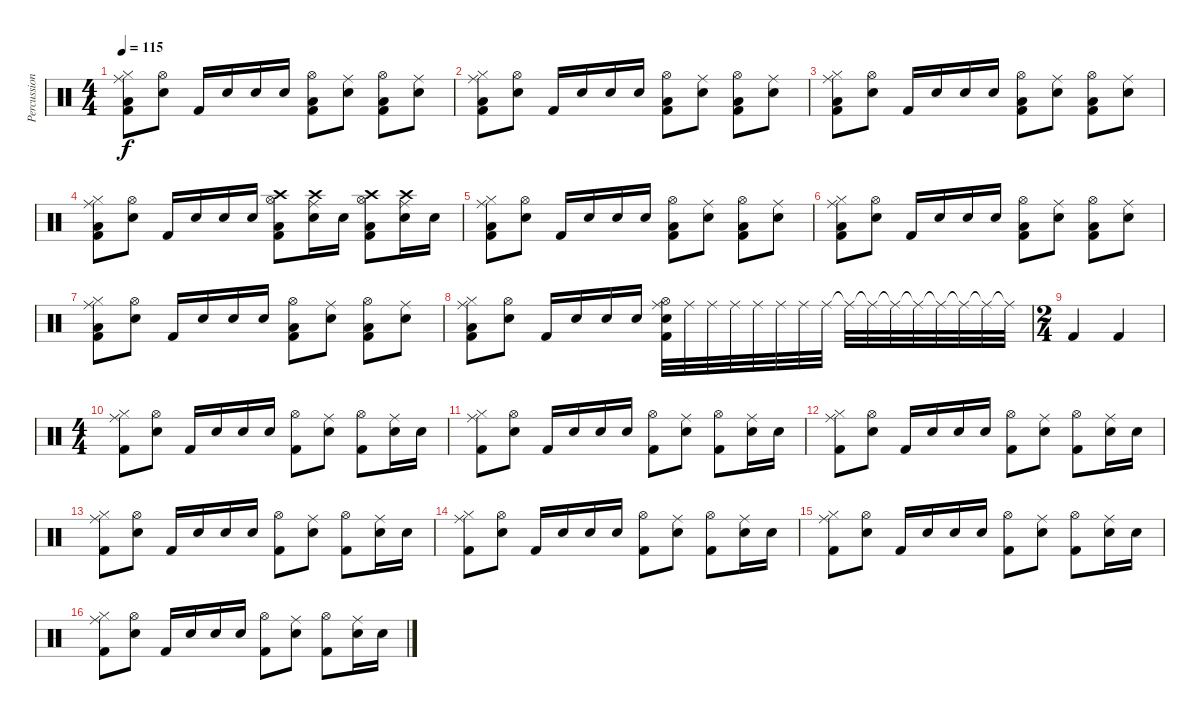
\track ("Percussion" "Percussion") {instrument percussion}
\staff {score}
\articulation defaults
\ts (4 4)
\tempo 115
\clef neutral
\ks c
("Ride (middle)" "Hi-Hat (closed)" "Kick (hit) 2" "Low Tom (hit)").8{dy f} ("Snare (hit) 2" "Hi-Hat (open)").8 "Kick (hit) 2".16 "Snare (hit) 2".16 "Snare (hit) 2".16 "Snare (hit) 2".16 ("Hi-Hat (open)" "Low Tom (hit)" "Kick (hit) 2").8 ("Ride (middle)" "Snare (hit) 2").8 ("Hi-Hat (open)" "Low Tom (hit)" "Kick (hit) 2").8 ("Ride (middle)" "Snare (hit) 2").8 |
("Ride (middle)" "Hi-Hat (closed)" "Kick (hit) 2" "Low Tom (hit)").8 ("Snare (hit) 2" "Hi-Hat (open)").8 "Kick (hit) 2".16 "Snare (hit) 2".16 "Snare (hit) 2".16 "Snare (hit) 2".16 ("Hi-Hat (open)" "Low Tom (hit)" "Kick (hit) 2").8 ("Ride (middle)" "Snare (hit) 2").8 ("Hi-Hat (open)" "Low Tom (hit)" "Kick (hit) 2").8 ("Ride (middle)" "Snare (hit) 2").8 |
("Ride (middle)" "Hi-Hat (closed)" "Kick (hit) 2" "Low Tom (hit)").8 ("Snare (hit) 2" "Hi-Hat (open)").8 "Kick (hit) 2".16 "Snare (hit) 2".16 "Snare (hit) 2".16 "Snare (hit) 2".16 ("Hi-Hat (open)" "Low Tom (hit)" "Kick (hit) 2").8 ("Ride (middle)" "Snare (hit) 2").8 ("Hi-Hat (open)" "Low Tom (hit)" "Kick (hit) 2").8 ("Ride (middle)" "Snare (hit) 2").8 |
("Ride (middle)" "Hi-Hat (closed)" "Kick (hit) 2" "Low Tom (hit)").8 ("Snare (hit) 2" "Hi-Hat (open)").8 "Kick (hit) 2".16 "Snare (hit) 2".16 "Snare (hit) 2".16 "Snare (hit) 2".16 ("Crash high (hit)" "Hi-Hat (open)" "Low Tom (hit)" "Kick (hit) 2").8 ("Crash high (hit)" "Ride (middle)" "Snare (hit) 2").16 "Snare (hit) 2".16 ("Crash high (hit)" "Hi-Hat (open)" "Kick (hit) 2" "Low Tom (hit)").8 ("Crash high (hit)" "Ride (middle)" "Snare (hit) 2").16 "Snare (hit) 2".16 |
("Ride (middle)" "Hi-Hat (closed)" "Kick (hit) 2" "Low Tom (hit)").8 ("Snare (hit) 2" "Hi-Hat (open)").8 "Kick (hit) 2".16 "Snare (hit) 2".16 "Snare (hit) 2".16 "Snare (hit) 2".16 ("Hi-Hat (open)" "Low Tom (hit)" "Kick (hit) 2").8 ("Ride (middle)" "Snare (hit) 2").8 ("Hi-Hat (open)" "Low Tom (hit)" "Kick (hit) 2").8 ("Ride (middle)" "Snare (hit) 2").8 |
("Ride (middle)" "Hi-Hat (closed)" "Kick (hit) 2" "Low Tom (hit)").8 ("Snare (hit) 2" "Hi-Hat (open)").8 "Kick (hit) 2".16 "Snare (hit) 2".16 "Snare (hit) 2".16 "Snare (hit) 2".16 ("Hi-Hat (open)" "Low Tom (hit)" "Kick (hit) 2").8 ("Ride (middle)" "Snare (hit) 2").8 ("Hi-Hat (open)" "Low Tom (hit)" "Kick (hit) 2").8 ("Ride (middle)" "Snare (hit) 2").8 |
("Ride (middle)" "Hi-Hat (closed)" "Kick (hit) 2" "Low Tom (hit)").8 ("Snare (hit) 2" "Hi-Hat (open)").8 "Kick (hit) 2".16 "Snare (hit) 2".16 "Snare (hit) 2".16 "Snare (hit) 2".16 ("Hi-Hat (open)" "Low Tom (hit)" "Kick (hit) 2").8 ("Ride (middle)" "Snare (hit) 2").8 ("Hi-Hat (open)" "Low Tom (hit)" "Kick (hit) 2").8 ("Ride (middle)" "Snare (hit) 2").8 |
("Ride (middle)" "Hi-Hat (closed)" "Kick (hit) 2" "Low Tom (hit)").8 ("Snare (hit) 2" "Hi-Hat (open)").8 "Kick (hit) 2".16 "Snare (hit) 2".16 "Snare (hit) 2".16 "Snare (hit) 2".16 ("Hi-Hat (open)" "Ride (middle)" "Snare (hit) 2" "Kick (hit) 2").32 "Ride (middle)".32 "Ride (middle)".32 "Ride (middle)".32 "Ride (middle)".32 "Ride (middle)".32 "Ride (middle)".32 "Ride (middle)".32 "Ride (middle)"{t}.32 "Ride (middle)"{t}.32 "Ride (middle)"{t}.32 "Ride (middle)"{t}.32 "Ride (middle)"{t}.32 "Ride (middle)"{t}.32 "Ride (middle)"{t}.32 "Ride (middle)"{t}.32 |
\ts (2 4)
"Kick (hit) 2".4 "Kick (hit) 2".4 |
\ts (4 4)
("Ride (middle)" "Hi-Hat (closed)" "Kick (hit) 2").8 ("Snare (hit) 2" "Hi-Hat (open)").8 "Kick (hit) 2".16 "Snare (hit) 2".16 "Snare (hit) 2".16 "Snare (hit) 2".16 ("Hi-Hat (open)" "Kick (hit) 2").8 ("Ride (middle)" "Snare (hit) 2").8 ("Hi-Hat (open)" "Kick (hit) 2").8 ("Ride (middle)" "Snare (hit) 2").16 "Snare (hit) 2".16 |
("Ride (middle)" "Hi-Hat (closed)" "Kick (hit) 2").8 ("Snare (hit) 2" "Hi-Hat (open)").8 "Kick (hit) 2".16 "Snare (hit) 2".16 "Snare (hit) 2".16 "Snare (hit) 2".16 ("Hi-Hat (open)" "Kick (hit) 2").8 ("Ride (middle)" "Snare (hit) 2").8 ("Hi-Hat (open)" "Kick (hit) 2").8 ("Ride (middle)" "Snare (hit) 2").16 "Snare (hit) 2".16 |
("Ride (middle)" "Hi-Hat (closed)" "Kick (hit) 2").8 ("Snare (hit) 2" "Hi-Hat (open)").8 "Kick (hit) 2".16 "Snare (hit) 2".16 "Snare (hit) 2".16 "Snare (hit) 2".16 ("Hi-Hat (open)" "Kick (hit) 2").8 ("Ride (middle)" "Snare (hit) 2").8 ("Hi-Hat (open)" "Kick (hit) 2").8 ("Ride (middle)" "Snare (hit) 2").16 "Snare (hit) 2".16 |
("Ride (middle)" "Hi-Hat (closed)" "Kick (hit) 2").8 ("Snare (hit) 2" "Hi-Hat (open)").8 "Kick (hit) 2".16 "Snare (hit) 2".16 "Snare (hit) 2".16 "Snare (hit) 2".16 ("Hi-Hat (open)" "Kick (hit) 2").8 ("Ride (middle)" "Snare (hit) 2").8 ("Hi-Hat (open)" "Kick (hit) 2").8 ("Ride (middle)" "Snare (hit) 2").16 "Snare (hit) 2".16 |
("Ride (middle)" "Hi-Hat (closed)" "Kick (hit) 2").8 ("Snare (hit) 2" "Hi-Hat (open)").8 "Kick (hit) 2".16 "Snare (hit) 2".16 "Snare (hit) 2".16 "Snare (hit) 2".16 ("Hi-Hat (open)" "Kick (hit) 2").8 ("Ride (middle)" "Snare (hit) 2").8 ("Hi-Hat (open)" "Kick (hit) 2").8 ("Ride (middle)" "Snare (hit) 2").16 "Snare (hit) 2".16 |
("Ride (middle)" "Hi-Hat (closed)" "Kick (hit) 2").8 ("Snare (hit) 2" "Hi-Hat (open)").8 "Kick (hit) 2".16 "Snare (hit) 2".16 "Snare (hit) 2".16 "Snare (hit) 2".16 ("Hi-Hat (open)" "Kick (hit) 2").8 ("Ride (middle)" "Snare (hit) 2").8 ("Hi-Hat (open)" "Kick (hit) 2").8 ("Ride (middle)" "Snare (hit) 2").16 "Snare (hit) 2".16 |
("Ride (middle)" "Hi-Hat (closed)" "Kick (hit) 2").8 ("Snare (hit) 2" "Hi-Hat (open)").8 "Kick (hit) 2".16 "Snare (hit) 2".16 "Snare (hit) 2".16 "Snare (hit) 2".16 ("Hi-Hat (open)" "Kick (hit) 2").8 ("Ride (middle)" "Snare (hit) 2").8 ("Hi-Hat (open)" "Kick (hit) 2").8 ("Ride (middle)" "Snare (hit) 2").16 "Snare (hit) 2".16
